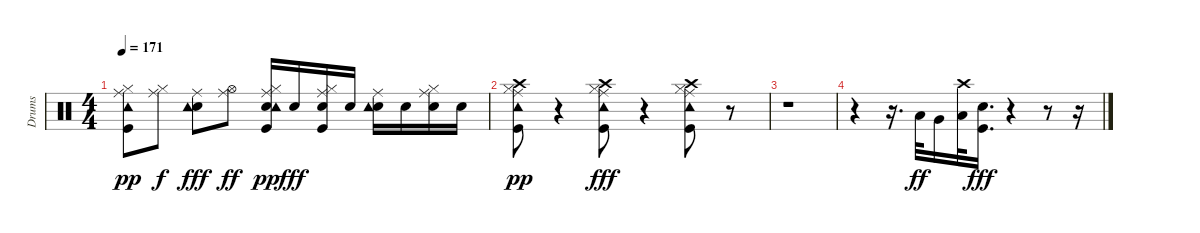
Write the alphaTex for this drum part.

\track ("Drums" "Drums") {instrument percussion}
\staff {score}
\articulation defaults
\ts (4 4)
\tempo 171
\clef neutral
\ks c
("Kick (hit)" "Hi-Hat (closed)" "Ride (middle)" "Tambourine (hit)").8{dy pp} ("Hi-Hat (closed)" "Ride (middle)").8{dy f} ("Snare (hit) 2" "Ride (middle)" "Tambourine (hit)").8{dy fff} ("Hi-Hat (open)" "Ride (middle)").8{dy ff} ("Kick (hit)" "Snare (hit) 2" "Hi-Hat (closed)" "Ride (middle)" "Tambourine (hit)").16{dy pp} "Snare (hit) 2".16{dy fff} ("Kick (hit)" "Snare (hit) 2" "Hi-Hat (closed)" "Ride (middle)").16 "Snare (hit) 2".16 ("Snare (hit) 2" "Ride (middle)" "Tambourine (hit)").16 "Snare (hit) 2".16 ("Snare (hit) 2" "Hi-Hat (closed)" "Ride (middle)").16 "Snare (hit) 2".16 |
("Kick (hit)" "Hi-Hat (closed)" "Crash high (hit)" "Ride (middle)" "Tambourine (hit)").8{dy pp} r.4 ("Tambourine (hit)" "Ride (middle)" "Crash high (hit)" "Hi-Hat (closed)" "Kick (hit)").8{dy fff} r.4 ("Tambourine (hit)" "Ride (middle)" "Crash high (hit)" "Hi-Hat (closed)" "Kick (hit)").8 r.8 |
r.1 |
r.4 r.16{d} "Low Tom (hit)".32{dy ff} "Very Low Tom (hit)".16 ("Low Floor Tom (hit)" "Crash high (hit)").32 ("Kick (hit)" "Electric Snare (hit)").16{d dy fff} r.4 r.8 r.16
